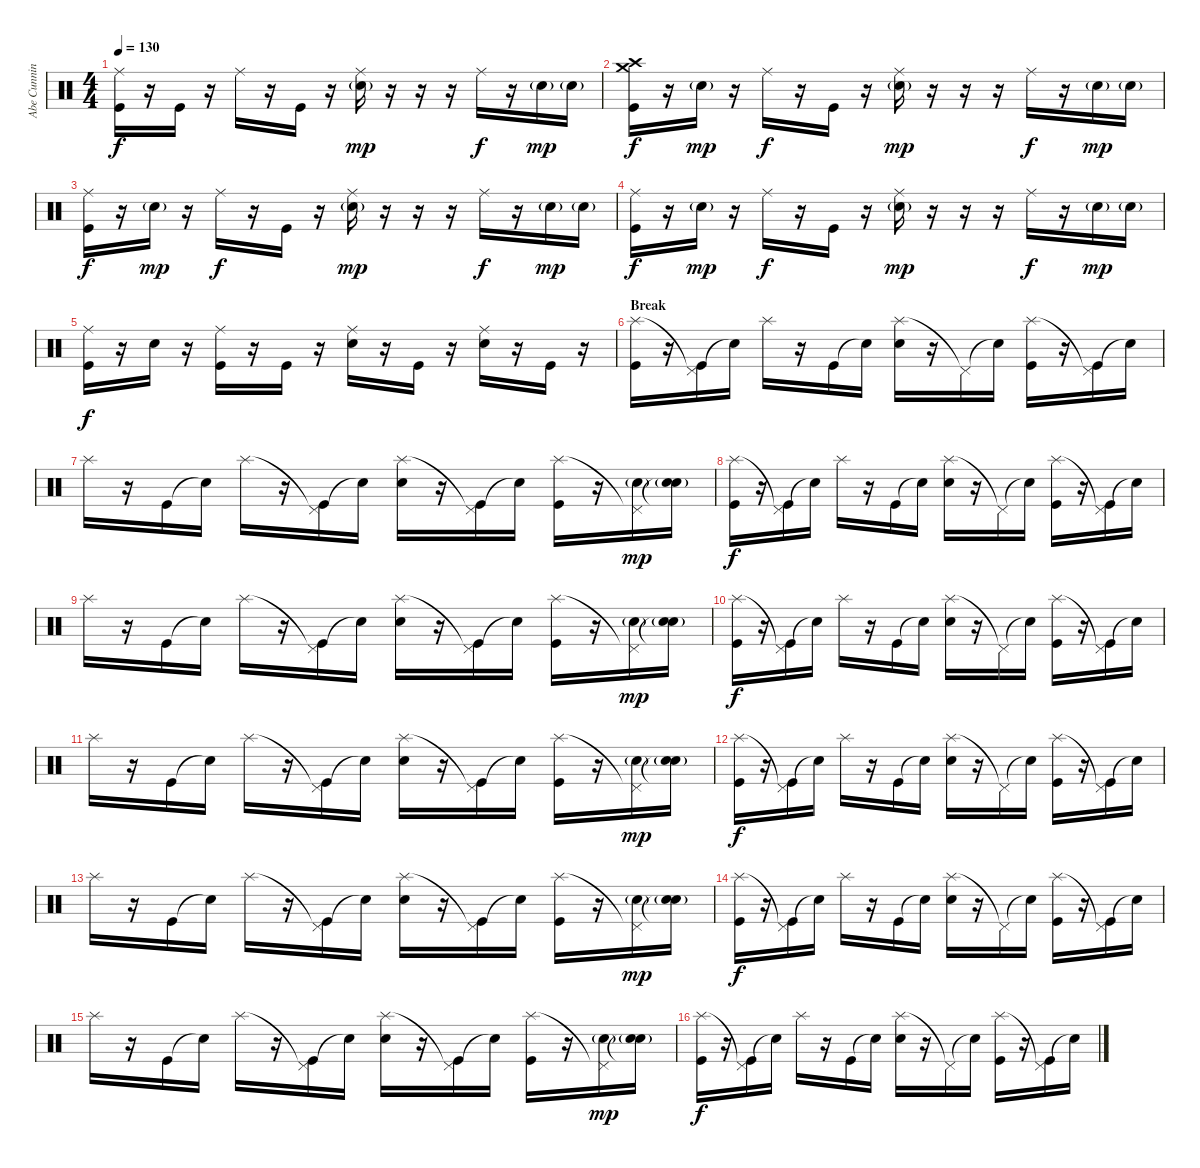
\track ("Abe Cunningham" "Abe Cunnin") {instrument percussion}
\staff {score}
\articulation defaults
\ts (4 4)
\tempo 130
\clef neutral
\ks c
("Ride (middle)" "Kick (hit)").16{dy f} r.16 "Kick (hit)".16 r.16 "Ride (middle)".16 r.16 "Kick (hit)".16 r.16 ("Ride (middle)" "Electric Snare (hit)"{g}).16{dy mp} r.16 r.16 r.16 "Ride (middle)".16{dy f} r.16 "Electric Snare (hit)"{g}.16{dy mp} "Electric Snare (hit)"{g}.16 |
("Crash high (hit)" "Crash medium (hit)" "Kick (hit)").16{dy f} r.16 "Electric Snare (hit)"{g}.16{dy mp} r.16 "Ride (middle)".16{dy f} r.16 "Kick (hit)".16 r.16 ("Ride (middle)" "Electric Snare (hit)"{g}).16{dy mp} r.16 r.16 r.16 "Ride (middle)".16{dy f} r.16 "Electric Snare (hit)"{g}.16{dy mp} "Electric Snare (hit)"{g}.16 |
("Ride (middle)" "Kick (hit)").16{dy f} r.16 "Electric Snare (hit)"{g}.16{dy mp} r.16 "Ride (middle)".16{dy f} r.16 "Kick (hit)".16 r.16 ("Ride (middle)" "Electric Snare (hit)"{g}).16{dy mp} r.16 r.16 r.16 "Ride (middle)".16{dy f} r.16 "Electric Snare (hit)"{g}.16{dy mp} "Electric Snare (hit)"{g}.16 |
("Ride (middle)" "Kick (hit)").16{dy f} r.16 "Electric Snare (hit)"{g}.16{dy mp} r.16 "Ride (middle)".16{dy f} r.16 "Kick (hit)".16 r.16 ("Ride (middle)" "Electric Snare (hit)"{g}).16{dy mp} r.16 r.16 r.16 "Ride (middle)".16{dy f} r.16 "Electric Snare (hit)"{g}.16{dy mp} "Electric Snare (hit)"{g}.16 |
("Ride (middle)" "Kick (hit)").16{dy f} r.16 "Electric Snare (hit)".16 r.16 ("Ride (middle)" "Kick (hit)").16 r.16 "Kick (hit)".16 r.16 ("Ride (middle)" "Electric Snare (hit)").16 r.16 "Kick (hit)".16 r.16 ("Ride (middle)" "Electric Snare (hit)").16 r.16 "Kick (hit)".16 r.16 |
\section ("" "Break")
("Splash (hit)" "Kick (hit)").16 r.16 ("Pedal Hi-Hat (hit)"{t} "Kick (hit)").16 "Snare (hit)"{t}.16 "Splash (hit)".16 r.16 "Kick (hit)".16 "Snare (hit)"{t}.16 ("Splash (hit)" "Electric Snare (hit)").16 r.16 "Pedal Hi-Hat (hit)"{t}.16 "Snare (hit)"{t}.16 ("Splash (hit)" "Kick (hit)").16 r.16 ("Pedal Hi-Hat (hit)"{t} "Kick (hit)").16 "Snare (hit)"{t}.16 |
"Splash (hit)".16 r.16 "Kick (hit)".16 "Snare (hit)"{t}.16 "Splash (hit)".16 r.16 ("Pedal Hi-Hat (hit)"{t} "Kick (hit)").16 "Snare (hit)"{t}.16 ("Splash (hit)" "Electric Snare (hit)").16 r.16 ("Pedal Hi-Hat (hit)"{t} "Kick (hit)").16 "Snare (hit)"{t}.16 ("Splash (hit)" "Kick (hit)").16 r.16 ("Pedal Hi-Hat (hit)"{t} "Electric Snare (hit)"{g}).16{dy mp} ("Snare (hit)"{t} "Electric Snare (hit)"{g}).16 |
("Splash (hit)" "Kick (hit)").16{dy f} r.16 ("Pedal Hi-Hat (hit)"{t} "Kick (hit)").16 "Snare (hit)"{t}.16 "Splash (hit)".16 r.16 "Kick (hit)".16 "Snare (hit)"{t}.16 ("Splash (hit)" "Electric Snare (hit)").16 r.16 "Pedal Hi-Hat (hit)"{t}.16 "Snare (hit)"{t}.16 ("Splash (hit)" "Kick (hit)").16 r.16 ("Pedal Hi-Hat (hit)"{t} "Kick (hit)").16 "Snare (hit)"{t}.16 |
"Splash (hit)".16 r.16 "Kick (hit)".16 "Snare (hit)"{t}.16 "Splash (hit)".16 r.16 ("Pedal Hi-Hat (hit)"{t} "Kick (hit)").16 "Snare (hit)"{t}.16 ("Splash (hit)" "Electric Snare (hit)").16 r.16 ("Pedal Hi-Hat (hit)"{t} "Kick (hit)").16 "Snare (hit)"{t}.16 ("Splash (hit)" "Kick (hit)").16 r.16 ("Pedal Hi-Hat (hit)"{t} "Electric Snare (hit)"{g}).16{dy mp} ("Snare (hit)"{t} "Electric Snare (hit)"{g}).16 |
("Splash (hit)" "Kick (hit)").16{dy f} r.16 ("Pedal Hi-Hat (hit)"{t} "Kick (hit)").16 "Snare (hit)"{t}.16 "Splash (hit)".16 r.16 "Kick (hit)".16 "Snare (hit)"{t}.16 ("Splash (hit)" "Electric Snare (hit)").16 r.16 "Pedal Hi-Hat (hit)"{t}.16 "Snare (hit)"{t}.16 ("Splash (hit)" "Kick (hit)").16 r.16 ("Pedal Hi-Hat (hit)"{t} "Kick (hit)").16 "Snare (hit)"{t}.16 |
"Splash (hit)".16 r.16 "Kick (hit)".16 "Snare (hit)"{t}.16 "Splash (hit)".16 r.16 ("Pedal Hi-Hat (hit)"{t} "Kick (hit)").16 "Snare (hit)"{t}.16 ("Splash (hit)" "Electric Snare (hit)").16 r.16 ("Pedal Hi-Hat (hit)"{t} "Kick (hit)").16 "Snare (hit)"{t}.16 ("Splash (hit)" "Kick (hit)").16 r.16 ("Pedal Hi-Hat (hit)"{t} "Electric Snare (hit)"{g}).16{dy mp} ("Snare (hit)"{t} "Electric Snare (hit)"{g}).16 |
("Splash (hit)" "Kick (hit)").16{dy f} r.16 ("Pedal Hi-Hat (hit)"{t} "Kick (hit)").16 "Snare (hit)"{t}.16 "Splash (hit)".16 r.16 "Kick (hit)".16 "Snare (hit)"{t}.16 ("Splash (hit)" "Electric Snare (hit)").16 r.16 "Pedal Hi-Hat (hit)"{t}.16 "Snare (hit)"{t}.16 ("Splash (hit)" "Kick (hit)").16 r.16 ("Pedal Hi-Hat (hit)"{t} "Kick (hit)").16 "Snare (hit)"{t}.16 |
"Splash (hit)".16 r.16 "Kick (hit)".16 "Snare (hit)"{t}.16 "Splash (hit)".16 r.16 ("Pedal Hi-Hat (hit)"{t} "Kick (hit)").16 "Snare (hit)"{t}.16 ("Splash (hit)" "Electric Snare (hit)").16 r.16 ("Pedal Hi-Hat (hit)"{t} "Kick (hit)").16 "Snare (hit)"{t}.16 ("Splash (hit)" "Kick (hit)").16 r.16 ("Pedal Hi-Hat (hit)"{t} "Electric Snare (hit)"{g}).16{dy mp} ("Snare (hit)"{t} "Electric Snare (hit)"{g}).16 |
("Splash (hit)" "Kick (hit)").16{dy f} r.16 ("Pedal Hi-Hat (hit)"{t} "Kick (hit)").16 "Snare (hit)"{t}.16 "Splash (hit)".16 r.16 "Kick (hit)".16 "Snare (hit)"{t}.16 ("Splash (hit)" "Electric Snare (hit)").16 r.16 "Pedal Hi-Hat (hit)"{t}.16 "Snare (hit)"{t}.16 ("Splash (hit)" "Kick (hit)").16 r.16 ("Pedal Hi-Hat (hit)"{t} "Kick (hit)").16 "Snare (hit)"{t}.16 |
"Splash (hit)".16 r.16 "Kick (hit)".16 "Snare (hit)"{t}.16 "Splash (hit)".16 r.16 ("Pedal Hi-Hat (hit)"{t} "Kick (hit)").16 "Snare (hit)"{t}.16 ("Splash (hit)" "Electric Snare (hit)").16 r.16 ("Pedal Hi-Hat (hit)"{t} "Kick (hit)").16 "Snare (hit)"{t}.16 ("Splash (hit)" "Kick (hit)").16 r.16 ("Pedal Hi-Hat (hit)"{t} "Electric Snare (hit)"{g}).16{dy mp} ("Snare (hit)"{t} "Electric Snare (hit)"{g}).16 |
("Splash (hit)" "Kick (hit)").16{dy f} r.16 ("Pedal Hi-Hat (hit)"{t} "Kick (hit)").16 "Snare (hit)"{t}.16 "Splash (hit)".16 r.16 "Kick (hit)".16 "Snare (hit)"{t}.16 ("Splash (hit)" "Electric Snare (hit)").16 r.16 "Pedal Hi-Hat (hit)"{t}.16 "Snare (hit)"{t}.16 ("Splash (hit)" "Kick (hit)").16 r.16 ("Pedal Hi-Hat (hit)"{t} "Kick (hit)").16 "Snare (hit)"{t}.16
